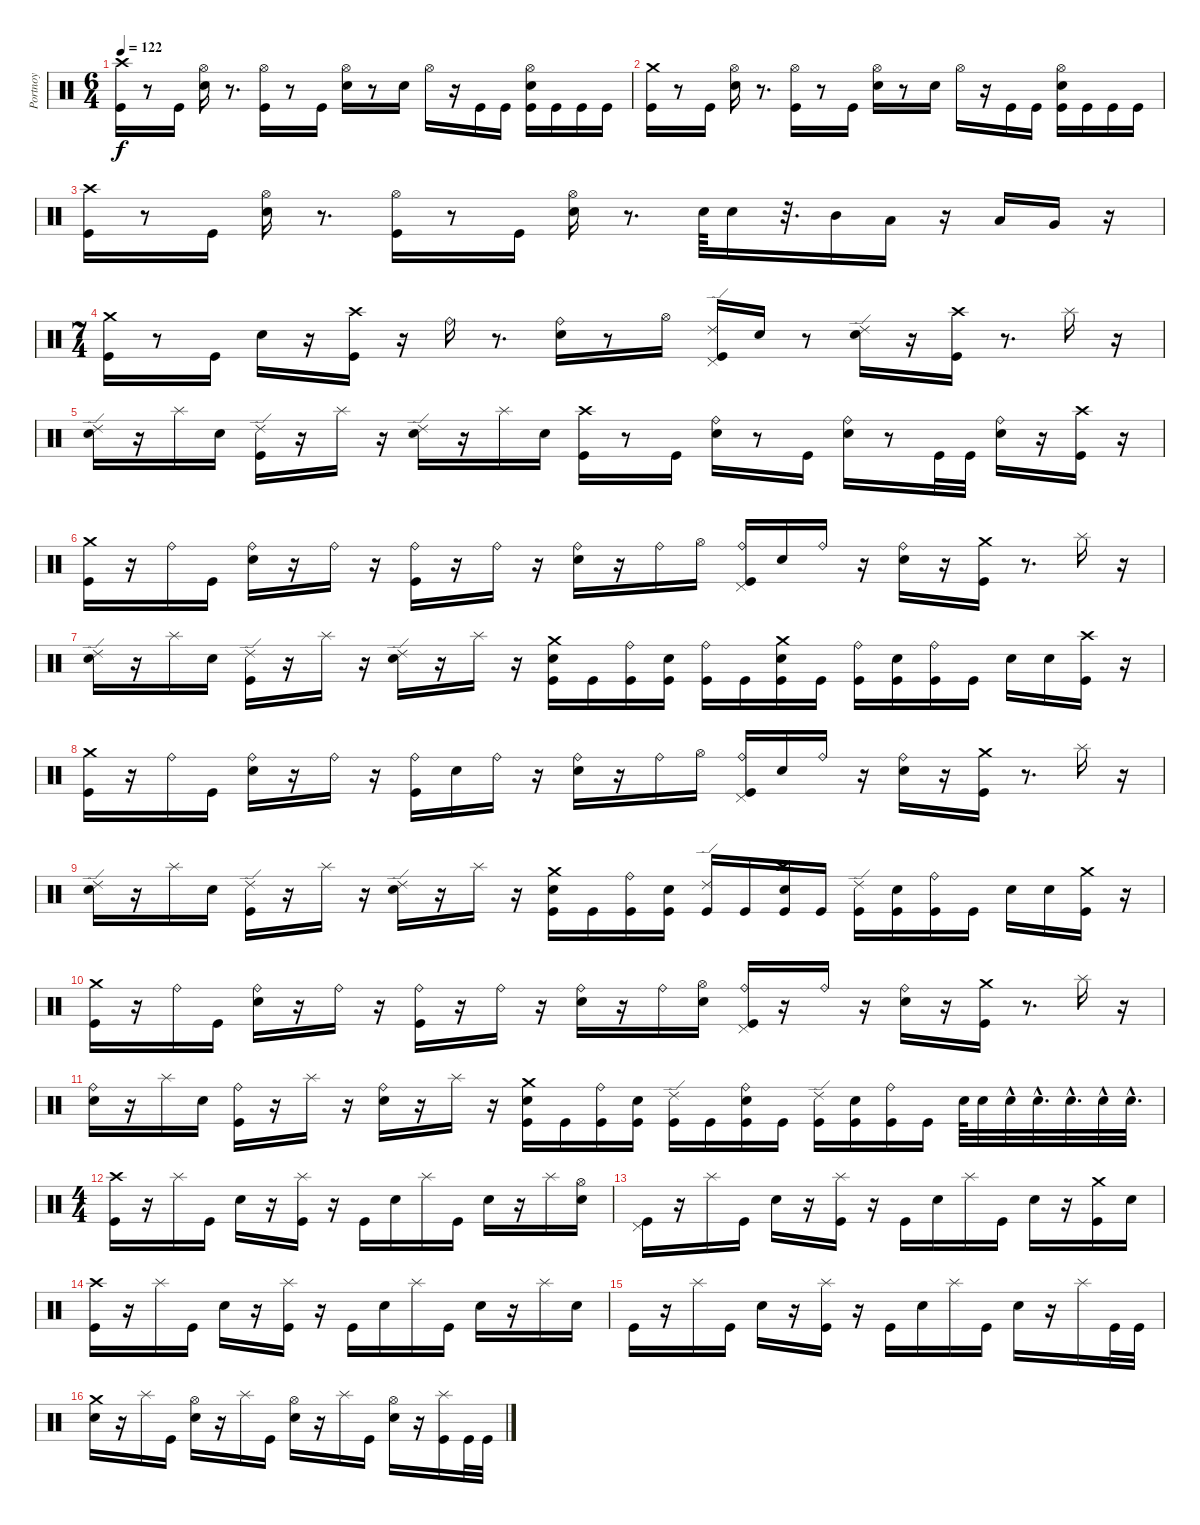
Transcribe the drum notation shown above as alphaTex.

\track ("Portnoy" "Portnoy") {instrument percussion}
\staff {score}
\articulation defaults
\ts (6 4)
\tempo 122
\clef neutral
\ks c
("Kick (hit)" "Crash high (hit)").16{dy f} r.8 "Kick (hit)".16 ("Metronome (bell)" "Hi-Hat (open)").16 r.8{d} ("Kick (hit)" "Hi-Hat (open)").16 r.8 "Kick (hit)".16 ("Metronome (bell)" "Hi-Hat (open)").16 r.8 "Metronome (bell)".16 "Hi-Hat (open)".16 r.16 "Kick (hit)".16 "Kick (hit)".16 ("Kick (hit)" "Metronome (bell)" "Hi-Hat (open)").16 "Kick (hit)".16 "Kick (hit)".16 "Kick (hit)".16 |
("Kick (hit)" "Crash medium (hit)").16 r.8 "Kick (hit)".16 ("Metronome (bell)" "Hi-Hat (open)").16 r.8{d} ("Kick (hit)" "Hi-Hat (open)").16 r.8 "Kick (hit)".16 ("Metronome (bell)" "Hi-Hat (open)").16 r.8 "Metronome (bell)".16 "Hi-Hat (open)".16 r.16 "Kick (hit)".16 "Kick (hit)".16 ("Kick (hit)" "Metronome (bell)" "Hi-Hat (open)").16 "Kick (hit)".16 "Kick (hit)".16 "Kick (hit)".16 |
("Kick (hit)" "Crash high (hit)").16 r.8 "Kick (hit)".16 ("Metronome (bell)" "Hi-Hat (open)").16 r.8{d} ("Kick (hit)" "Hi-Hat (open)").16 r.8 "Kick (hit)".16 ("Metronome (bell)" "Hi-Hat (open)").16 r.8{d} "Metronome (bell)".64 "Metronome (bell)".16 r.32{d} "Mid Tom (hit)".16 "Low Tom (hit)".16 r.16 "Low Tom (hit)".16 "Very Low Tom (hit)".16 r.16 |
\ts (7 4)
("Crash medium (hit)" "Kick (hit)").16 r.8 "Kick (hit)".16 "Metronome (bell)".16 r.16 ("Crash high (hit)" "Kick (hit)").16 r.16 "Ride (bell)".16 r.8{d} ("Metronome (bell)" "Ride (bell)").16 r.8 "Hi-Hat (open)".16 ("Pedal Hi-Hat (hit)" "Kick (hit)" "Ride (edge) 2").16 "Metronome (bell)".16 r.8 ("Ride (edge) 2" "Metronome (bell)").16 r.16 ("Crash high (hit)" "Kick (hit)").16 r.8{d} "Splash (hit)".16 r.16 |
("Ride (edge) 2" "Metronome (bell)").16 r.16 "Splash (hit)".16 "Metronome (bell)".16 ("Ride (edge) 2" "Kick (hit)").16 r.16 "Splash (hit)".16 r.16 ("Ride (edge) 2" "Metronome (bell)").16 r.16 "Splash (hit)".16 "Metronome (bell)".16 ("Crash high (hit)" "Kick (hit)").16 r.8 "Kick (hit)".16 ("Ride (bell)" "Metronome (bell)").16 r.8 "Kick (hit)".16 ("Ride (bell)" "Metronome (bell)").16 r.8 "Kick (hit)".32 "Kick (hit)".32 ("Ride (bell)" "Metronome (bell)").16 r.16 ("Crash high (hit)" "Kick (hit)").16 r.16 |
("Crash medium (hit)" "Kick (hit)").16 r.16 "Ride (bell)".16 "Kick (hit)".16 ("Metronome (bell)" "Ride (bell)").16 r.16 "Ride (bell)".16 r.16 ("Kick (hit)" "Ride (bell)").16 r.16 "Ride (bell)".16 r.16 ("Metronome (bell)" "Ride (bell)").16 r.16 "Ride (bell)".16 "Hi-Hat (open)".16 ("Pedal Hi-Hat (hit)" "Kick (hit)" "Ride (bell)").16 "Metronome (bell)".16 "Ride (bell)".16 r.16 ("Metronome (bell)" "Ride (bell)").16 r.16 ("Crash medium (hit)" "Kick (hit)").16 r.8{d} "Splash (hit)".16 r.16 |
("Ride (edge) 2" "Metronome (bell)").16 r.16 "Splash (hit)".16 "Metronome (bell)".16 ("Ride (edge) 2" "Kick (hit)").16 r.16 "Splash (hit)".16 r.16 ("Ride (edge) 2" "Metronome (bell)").16 r.16 "Splash (hit)".16 r.16 ("Kick (hit)" "Metronome (bell)" "Crash medium (hit)").16 "Kick (hit)".16 ("Ride (bell)" "Kick (hit)").16 ("Metronome (bell)" "Kick (hit)").16 ("Kick (hit)" "Ride (bell)").16 "Kick (hit)".16 ("Crash medium (hit)" "Metronome (bell)" "Kick (hit)").16 "Kick (hit)".16 ("Ride (bell)" "Kick (hit)").16 ("Metronome (bell)" "Kick (hit)").16 ("Ride (bell)" "Kick (hit)").16 "Kick (hit)".16 "Metronome (bell)".16 "Metronome (bell)".16 ("Crash high (hit)" "Kick (hit)").16 r.16 |
("Crash medium (hit)" "Kick (hit)").16 r.16 "Ride (bell)".16 "Kick (hit)".16 ("Metronome (bell)" "Ride (bell)").16 r.16 "Ride (bell)".16 r.16 ("Kick (hit)" "Ride (bell)").16 "Metronome (bell)".16 "Ride (bell)".16 r.16 ("Metronome (bell)" "Ride (bell)").16 r.16 "Ride (bell)".16 "Hi-Hat (open)".16 ("Pedal Hi-Hat (hit)" "Kick (hit)" "Ride (bell)").16 "Metronome (bell)".16 "Ride (bell)".16 r.16 ("Metronome (bell)" "Ride (bell)").16 r.16 ("Crash medium (hit)" "Kick (hit)").16 r.8{d} "Splash (hit)".16 r.16 |
("Ride (edge) 2" "Metronome (bell)").16 r.16 "Splash (hit)".16 "Metronome (bell)".16 ("Ride (edge) 2" "Kick (hit)").16 r.16 "Splash (hit)".16 r.16 ("Ride (edge) 2" "Metronome (bell)").16 r.16 "Splash (hit)".16 r.16 ("Metronome (bell)" "Crash medium (hit)" "Kick (hit)").16 "Kick (hit)".16 ("Ride (bell)" "Kick (hit)").16 ("Metronome (bell)" "Kick (hit)").16 ("Kick (hit)" "Ride (edge) 2").16 "Kick (hit)".16 ("Crash high (hit)" "Metronome (bell)" "Kick (hit)").16 "Kick (hit)".16 ("Kick (hit)" "Ride (edge) 2").16 ("Metronome (bell)" "Kick (hit)").16 ("Kick (hit)" "Ride (bell)").16 "Kick (hit)".16 "Metronome (bell)".16 "Metronome (bell)".16 ("Crash medium (hit)" "Kick (hit)").16 r.16 |
("Crash medium (hit)" "Kick (hit)").16 r.16 "Ride (bell)".16 "Kick (hit)".16 ("Metronome (bell)" "Ride (bell)").16 r.16 "Ride (bell)".16 r.16 ("Kick (hit)" "Ride (bell)").16 r.16 "Ride (bell)".16 r.16 ("Metronome (bell)" "Ride (bell)").16 r.16 "Ride (bell)".16 ("Metronome (bell)" "Hi-Hat (open)").16 ("Pedal Hi-Hat (hit)" "Kick (hit)" "Ride (bell)").16 r.16 "Ride (bell)".16 r.16 ("Metronome (bell)" "Ride (bell)").16 r.16 ("Crash medium (hit)" "Kick (hit)").16 r.8{d} "Splash (hit)".16 r.16 |
("Ride (bell)" "Metronome (bell)").16 r.16 "Splash (hit)".16 "Metronome (bell)".16 ("Ride (bell)" "Kick (hit)").16 r.16 "Splash (hit)".16 r.16 ("Ride (bell)" "Metronome (bell)").16 r.16 "Splash (hit)".16 r.16 ("Metronome (bell)" "Crash medium (hit)" "Kick (hit)").16 "Kick (hit)".16 ("Ride (bell)" "Kick (hit)").16 ("Metronome (bell)" "Kick (hit)").16 ("Kick (hit)" "Ride (edge) 2").16 "Kick (hit)".16 ("Metronome (bell)" "Kick (hit)" "Ride (bell)").16 "Kick (hit)".16 ("Kick (hit)" "Ride (edge) 2").16 ("Metronome (bell)" "Kick (hit)").16 ("Kick (hit)" "Ride (bell)").16 "Kick (hit)".16 "Metronome (bell)".64 "Metronome (bell)".32 "Metronome (bell)"{hac}.32 "Metronome (bell)"{hac}.32{d} "Metronome (bell)"{hac}.32{d} "Metronome (bell)"{hac}.32 "Metronome (bell)"{hac}.32{d} |
\ts (4 4)
("Crash high (hit)" "Kick (hit)").16 r.16 "Splash (hit)".16 "Kick (hit)".16 "Metronome (bell)".16 r.16 ("Splash (hit)" "Kick (hit)").16 r.16 "Kick (hit)".16 "Metronome (bell)".16 "Splash (hit)".16 "Kick (hit)".16 "Metronome (bell)".16 r.16 "Splash (hit)".16 ("Hi-Hat (open)" "Metronome (bell)").16 |
("Pedal Hi-Hat (hit)" "Kick (hit)").16 r.16 "Splash (hit)".16 "Kick (hit)".16 "Metronome (bell)".16 r.16 ("Splash (hit)" "Kick (hit)").16 r.16 "Kick (hit)".16 "Metronome (bell)".16 "Splash (hit)".16 "Kick (hit)".16 "Metronome (bell)".16 r.16 ("Crash medium (hit)" "Kick (hit)").16 "Metronome (bell)".16 |
("Crash high (hit)" "Kick (hit)").16 r.16 "Splash (hit)".16 "Kick (hit)".16 "Metronome (bell)".16 r.16 ("Splash (hit)" "Kick (hit)").16 r.16 "Kick (hit)".16 "Metronome (bell)".16 "Splash (hit)".16 "Kick (hit)".16 "Metronome (bell)".16 r.16 "Splash (hit)".16 "Metronome (bell)".16 |
"Kick (hit)".16 r.16 "Splash (hit)".16 "Kick (hit)".16 "Metronome (bell)".16 r.16 ("Splash (hit)" "Kick (hit)").16 r.16 "Kick (hit)".16 "Metronome (bell)".16 "Splash (hit)".16 "Kick (hit)".16 "Metronome (bell)".16 r.16 "Splash (hit)".16 "Kick (hit)".32 "Kick (hit)".32 |
("Crash medium (hit)" "Metronome (bell)").16 r.16 "Splash (hit)".16 "Kick (hit)".16 ("Hi-Hat (open)" "Metronome (bell)").16 r.16 "Splash (hit)".16 "Kick (hit)".16 ("Hi-Hat (open)" "Metronome (bell)").16 r.16 "Splash (hit)".16 "Kick (hit)".16 ("Metronome (bell)" "Hi-Hat (open)").16 r.16 ("Kick (hit)" "Splash (hit)").16 "Kick (hit)".32 "Kick (hit)".32
